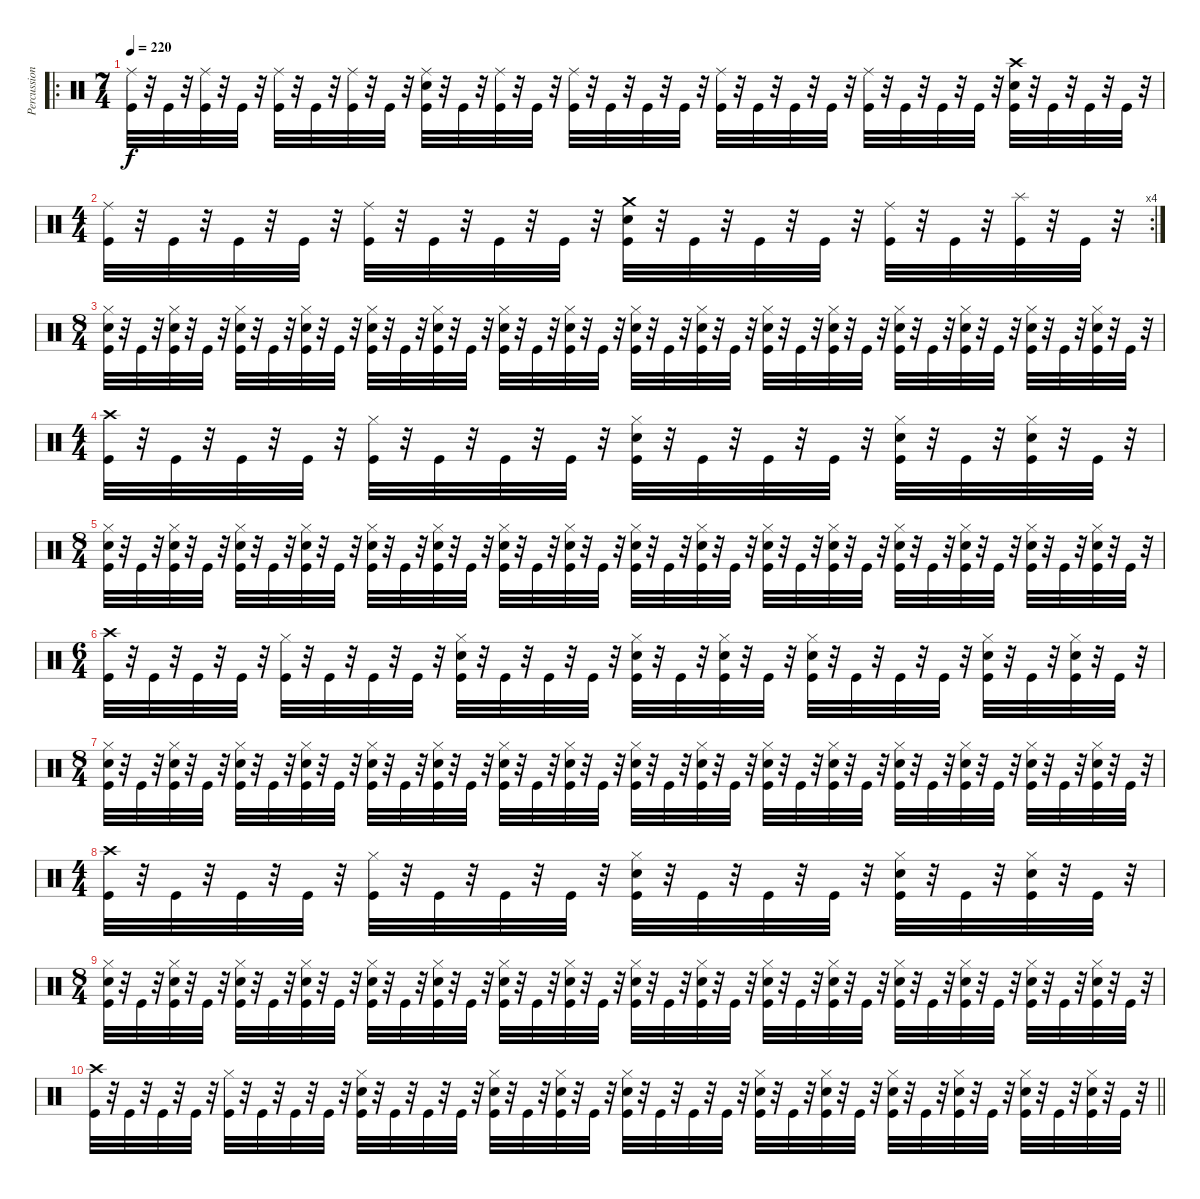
\track ("Percussion" "Percussion") {instrument percussion}
\staff {score}
\articulation defaults
\ro
\ts (7 4)
\tempo 220
\clef neutral
\ks c
("Kick (hit)" "Ride (middle)").32{dy f} r.32 "Kick (hit)".32 r.32 ("Kick (hit)" "Ride (middle)").32 r.32 "Kick (hit)".32 r.32 ("Kick (hit)" "Ride (middle)").32 r.32 "Kick (hit)".32 r.32 ("Kick (hit)" "Ride (middle)").32 r.32 "Kick (hit)".32 r.32 ("Kick (hit)" "Electric Snare (hit)" "Ride (middle)").32 r.32 "Kick (hit)".32 r.32 ("Kick (hit)" "Ride (middle)").32 r.32 "Kick (hit)".32 r.32 ("Kick (hit)" "Ride (middle)").32 r.32 "Kick (hit)".32 r.32 "Kick (hit)".32 r.32 "Kick (hit)".32 r.32 ("Kick (hit)" "Ride (middle)").32 r.32 "Kick (hit)".32 r.32 "Kick (hit)".32 r.32 "Kick (hit)".32 r.32 ("Kick (hit)" "Ride (middle)").32 r.32 "Kick (hit)".32 r.32 "Kick (hit)".32 r.32 "Kick (hit)".32 r.32 ("Kick (hit)" "Electric Snare (hit)" "Crash high (hit)").32 r.32 "Kick (hit)".32 r.32 "Kick (hit)".32 r.32 "Kick (hit)".32 r.32 |
\rc 4
\ts (4 4)
("Kick (hit)" "Ride (middle)").32 r.32 "Kick (hit)".32 r.32 "Kick (hit)".32 r.32 "Kick (hit)".32 r.32 ("Kick (hit)" "Ride (middle)").32 r.32 "Kick (hit)".32 r.32 "Kick (hit)".32 r.32 "Kick (hit)".32 r.32 ("Kick (hit)" "Crash medium (hit)" "Electric Snare (hit)").32 r.32 "Kick (hit)".32 r.32 "Kick (hit)".32 r.32 "Kick (hit)".32 r.32 ("Kick (hit)" "Ride (middle)").32 r.32 "Kick (hit)".32 r.32 ("Kick (hit)" "Splash (hit)").32 r.32 "Kick (hit)".32 r.32 |
\ts (8 4)
("Electric Snare (hit)" "Kick (hit)" "Hi-Hat (closed)").32 r.32 "Kick (hit)".32 r.32 ("Electric Snare (hit)" "Kick (hit)" "Hi-Hat (closed)").32 r.32 "Kick (hit)".32 r.32 ("Electric Snare (hit)" "Kick (hit)" "Hi-Hat (closed)").32 r.32 "Kick (hit)".32 r.32 ("Electric Snare (hit)" "Kick (hit)" "Hi-Hat (closed)").32 r.32 "Kick (hit)".32 r.32 ("Electric Snare (hit)" "Kick (hit)" "Hi-Hat (closed)").32 r.32 "Kick (hit)".32 r.32 ("Electric Snare (hit)" "Kick (hit)" "Hi-Hat (closed)").32 r.32 "Kick (hit)".32 r.32 ("Electric Snare (hit)" "Kick (hit)" "Hi-Hat (closed)").32 r.32 "Kick (hit)".32 r.32 ("Electric Snare (hit)" "Kick (hit)" "Hi-Hat (closed)").32 r.32 "Kick (hit)".32 r.32 ("Electric Snare (hit)" "Kick (hit)" "Hi-Hat (closed)").32 r.32 "Kick (hit)".32 r.32 ("Electric Snare (hit)" "Kick (hit)" "Hi-Hat (closed)").32 r.32 "Kick (hit)".32 r.32 ("Electric Snare (hit)" "Kick (hit)" "Hi-Hat (closed)").32 r.32 "Kick (hit)".32 r.32 ("Electric Snare (hit)" "Kick (hit)" "Hi-Hat (closed)").32 r.32 "Kick (hit)".32 r.32 ("Kick (hit)" "Electric Snare (hit)" "Hi-Hat (closed)").32 r.32 "Kick (hit)".32 r.32 ("Kick (hit)" "Electric Snare (hit)" "Hi-Hat (closed)").32 r.32 "Kick (hit)".32 r.32 ("Kick (hit)" "Electric Snare (hit)" "Hi-Hat (closed)").32 r.32 "Kick (hit)".32 r.32 ("Kick (hit)" "Electric Snare (hit)" "Hi-Hat (closed)").32 r.32 "Kick (hit)".32 r.32 |
\ts (4 4)
("Kick (hit)" "Crash high (hit)").32 r.32 "Kick (hit)".32 r.32 "Kick (hit)".32 r.32 "Kick (hit)".32 r.32 ("Kick (hit)" "Hi-Hat (closed)").32 r.32 "Kick (hit)".32 r.32 "Kick (hit)".32 r.32 "Kick (hit)".32 r.32 ("Kick (hit)" "Electric Snare (hit)" "Hi-Hat (closed)").32 r.32 "Kick (hit)".32 r.32 "Kick (hit)".32 r.32 "Kick (hit)".32 r.32 ("Kick (hit)" "Electric Snare (hit)" "Hi-Hat (closed)").32 r.32 "Kick (hit)".32 r.32 ("Kick (hit)" "Electric Snare (hit)" "Hi-Hat (closed)").32 r.32 "Kick (hit)".32 r.32 |
\ts (8 4)
("Electric Snare (hit)" "Kick (hit)" "Hi-Hat (closed)").32 r.32 "Kick (hit)".32 r.32 ("Electric Snare (hit)" "Kick (hit)" "Hi-Hat (closed)").32 r.32 "Kick (hit)".32 r.32 ("Electric Snare (hit)" "Kick (hit)" "Hi-Hat (closed)").32 r.32 "Kick (hit)".32 r.32 ("Electric Snare (hit)" "Kick (hit)" "Hi-Hat (closed)").32 r.32 "Kick (hit)".32 r.32 ("Electric Snare (hit)" "Kick (hit)" "Hi-Hat (closed)").32 r.32 "Kick (hit)".32 r.32 ("Electric Snare (hit)" "Kick (hit)" "Hi-Hat (closed)").32 r.32 "Kick (hit)".32 r.32 ("Electric Snare (hit)" "Kick (hit)" "Hi-Hat (closed)").32 r.32 "Kick (hit)".32 r.32 ("Electric Snare (hit)" "Kick (hit)" "Hi-Hat (closed)").32 r.32 "Kick (hit)".32 r.32 ("Electric Snare (hit)" "Kick (hit)" "Hi-Hat (closed)").32 r.32 "Kick (hit)".32 r.32 ("Electric Snare (hit)" "Kick (hit)" "Hi-Hat (closed)").32 r.32 "Kick (hit)".32 r.32 ("Electric Snare (hit)" "Kick (hit)" "Hi-Hat (closed)").32 r.32 "Kick (hit)".32 r.32 ("Electric Snare (hit)" "Kick (hit)" "Hi-Hat (closed)").32 r.32 "Kick (hit)".32 r.32 ("Kick (hit)" "Electric Snare (hit)" "Hi-Hat (closed)").32 r.32 "Kick (hit)".32 r.32 ("Kick (hit)" "Electric Snare (hit)" "Hi-Hat (closed)").32 r.32 "Kick (hit)".32 r.32 ("Kick (hit)" "Electric Snare (hit)" "Hi-Hat (closed)").32 r.32 "Kick (hit)".32 r.32 ("Kick (hit)" "Electric Snare (hit)" "Hi-Hat (closed)").32 r.32 "Kick (hit)".32 r.32 |
\ts (6 4)
("Kick (hit)" "Crash high (hit)").32 r.32 "Kick (hit)".32 r.32 "Kick (hit)".32 r.32 "Kick (hit)".32 r.32 ("Kick (hit)" "Hi-Hat (closed)").32 r.32 "Kick (hit)".32 r.32 "Kick (hit)".32 r.32 "Kick (hit)".32 r.32 ("Kick (hit)" "Electric Snare (hit)" "Hi-Hat (closed)").32 r.32 "Kick (hit)".32 r.32 "Kick (hit)".32 r.32 "Kick (hit)".32 r.32 ("Kick (hit)" "Electric Snare (hit)" "Hi-Hat (closed)").32 r.32 "Kick (hit)".32 r.32 ("Kick (hit)" "Electric Snare (hit)" "Hi-Hat (closed)").32 r.32 "Kick (hit)".32 r.32 ("Kick (hit)" "Electric Snare (hit)" "Hi-Hat (closed)").32 r.32 "Kick (hit)".32 r.32 "Kick (hit)".32 r.32 "Kick (hit)".32 r.32 ("Kick (hit)" "Electric Snare (hit)" "Hi-Hat (closed)").32 r.32 "Kick (hit)".32 r.32 ("Kick (hit)" "Electric Snare (hit)" "Hi-Hat (closed)").32 r.32 "Kick (hit)".32 r.32 |
\ts (8 4)
("Electric Snare (hit)" "Kick (hit)" "Hi-Hat (closed)").32 r.32 "Kick (hit)".32 r.32 ("Electric Snare (hit)" "Kick (hit)" "Hi-Hat (closed)").32 r.32 "Kick (hit)".32 r.32 ("Electric Snare (hit)" "Kick (hit)" "Hi-Hat (closed)").32 r.32 "Kick (hit)".32 r.32 ("Electric Snare (hit)" "Kick (hit)" "Hi-Hat (closed)").32 r.32 "Kick (hit)".32 r.32 ("Electric Snare (hit)" "Kick (hit)" "Hi-Hat (closed)").32 r.32 "Kick (hit)".32 r.32 ("Electric Snare (hit)" "Kick (hit)" "Hi-Hat (closed)").32 r.32 "Kick (hit)".32 r.32 ("Electric Snare (hit)" "Kick (hit)" "Hi-Hat (closed)").32 r.32 "Kick (hit)".32 r.32 ("Electric Snare (hit)" "Kick (hit)" "Hi-Hat (closed)").32 r.32 "Kick (hit)".32 r.32 ("Electric Snare (hit)" "Kick (hit)" "Hi-Hat (closed)").32 r.32 "Kick (hit)".32 r.32 ("Electric Snare (hit)" "Kick (hit)" "Hi-Hat (closed)").32 r.32 "Kick (hit)".32 r.32 ("Electric Snare (hit)" "Kick (hit)" "Hi-Hat (closed)").32 r.32 "Kick (hit)".32 r.32 ("Electric Snare (hit)" "Kick (hit)" "Hi-Hat (closed)").32 r.32 "Kick (hit)".32 r.32 ("Kick (hit)" "Electric Snare (hit)" "Hi-Hat (closed)").32 r.32 "Kick (hit)".32 r.32 ("Kick (hit)" "Electric Snare (hit)" "Hi-Hat (closed)").32 r.32 "Kick (hit)".32 r.32 ("Kick (hit)" "Electric Snare (hit)" "Hi-Hat (closed)").32 r.32 "Kick (hit)".32 r.32 ("Kick (hit)" "Electric Snare (hit)" "Hi-Hat (closed)").32 r.32 "Kick (hit)".32 r.32 |
\ts (4 4)
("Kick (hit)" "Crash high (hit)").32 r.32 "Kick (hit)".32 r.32 "Kick (hit)".32 r.32 "Kick (hit)".32 r.32 ("Kick (hit)" "Hi-Hat (closed)").32 r.32 "Kick (hit)".32 r.32 "Kick (hit)".32 r.32 "Kick (hit)".32 r.32 ("Kick (hit)" "Electric Snare (hit)" "Hi-Hat (closed)").32 r.32 "Kick (hit)".32 r.32 "Kick (hit)".32 r.32 "Kick (hit)".32 r.32 ("Kick (hit)" "Electric Snare (hit)" "Hi-Hat (closed)").32 r.32 "Kick (hit)".32 r.32 ("Kick (hit)" "Electric Snare (hit)" "Hi-Hat (closed)").32 r.32 "Kick (hit)".32 r.32 |
\ts (8 4)
("Electric Snare (hit)" "Kick (hit)" "Hi-Hat (closed)").32 r.32 "Kick (hit)".32 r.32 ("Electric Snare (hit)" "Kick (hit)" "Hi-Hat (closed)").32 r.32 "Kick (hit)".32 r.32 ("Electric Snare (hit)" "Kick (hit)" "Hi-Hat (closed)").32 r.32 "Kick (hit)".32 r.32 ("Electric Snare (hit)" "Kick (hit)" "Hi-Hat (closed)").32 r.32 "Kick (hit)".32 r.32 ("Electric Snare (hit)" "Kick (hit)" "Hi-Hat (closed)").32 r.32 "Kick (hit)".32 r.32 ("Electric Snare (hit)" "Kick (hit)" "Hi-Hat (closed)").32 r.32 "Kick (hit)".32 r.32 ("Electric Snare (hit)" "Kick (hit)" "Hi-Hat (closed)").32 r.32 "Kick (hit)".32 r.32 ("Electric Snare (hit)" "Kick (hit)" "Hi-Hat (closed)").32 r.32 "Kick (hit)".32 r.32 ("Electric Snare (hit)" "Kick (hit)" "Hi-Hat (closed)").32 r.32 "Kick (hit)".32 r.32 ("Electric Snare (hit)" "Kick (hit)" "Hi-Hat (closed)").32 r.32 "Kick (hit)".32 r.32 ("Electric Snare (hit)" "Kick (hit)" "Hi-Hat (closed)").32 r.32 "Kick (hit)".32 r.32 ("Electric Snare (hit)" "Kick (hit)" "Hi-Hat (closed)").32 r.32 "Kick (hit)".32 r.32 ("Kick (hit)" "Electric Snare (hit)" "Hi-Hat (closed)").32 r.32 "Kick (hit)".32 r.32 ("Kick (hit)" "Electric Snare (hit)" "Hi-Hat (closed)").32 r.32 "Kick (hit)".32 r.32 ("Kick (hit)" "Electric Snare (hit)" "Hi-Hat (closed)").32 r.32 "Kick (hit)".32 r.32 ("Kick (hit)" "Electric Snare (hit)" "Hi-Hat (closed)").32 r.32 "Kick (hit)".32 r.32 |
\barLineRight lightlight
("Kick (hit)" "Crash high (hit)").32 r.32 "Kick (hit)".32 r.32 "Kick (hit)".32 r.32 "Kick (hit)".32 r.32 ("Kick (hit)" "Hi-Hat (closed)").32 r.32 "Kick (hit)".32 r.32 "Kick (hit)".32 r.32 "Kick (hit)".32 r.32 ("Kick (hit)" "Electric Snare (hit)" "Hi-Hat (closed)").32 r.32 "Kick (hit)".32 r.32 "Kick (hit)".32 r.32 "Kick (hit)".32 r.32 ("Kick (hit)" "Electric Snare (hit)" "Hi-Hat (closed)").32 r.32 "Kick (hit)".32 r.32 ("Kick (hit)" "Electric Snare (hit)" "Hi-Hat (closed)").32 r.32 "Kick (hit)".32 r.32 ("Kick (hit)" "Electric Snare (hit)" "Hi-Hat (closed)").32 r.32 "Kick (hit)".32 r.32 "Kick (hit)".32 r.32 "Kick (hit)".32 r.32 ("Kick (hit)" "Electric Snare (hit)" "Hi-Hat (closed)").32 r.32 "Kick (hit)".32 r.32 ("Kick (hit)" "Electric Snare (hit)" "Hi-Hat (closed)").32 r.32 "Kick (hit)".32 r.32 ("Kick (hit)" "Electric Snare (hit)" "Hi-Hat (closed)").32 r.32 "Kick (hit)".32 r.32 ("Kick (hit)" "Electric Snare (hit)" "Hi-Hat (closed)").32 r.32 "Kick (hit)".32 r.32 ("Kick (hit)" "Electric Snare (hit)" "Hi-Hat (closed)").32 r.32 "Kick (hit)".32 r.32 ("Kick (hit)" "Electric Snare (hit)" "Hi-Hat (closed)").32 r.32 "Kick (hit)".32 r.32
